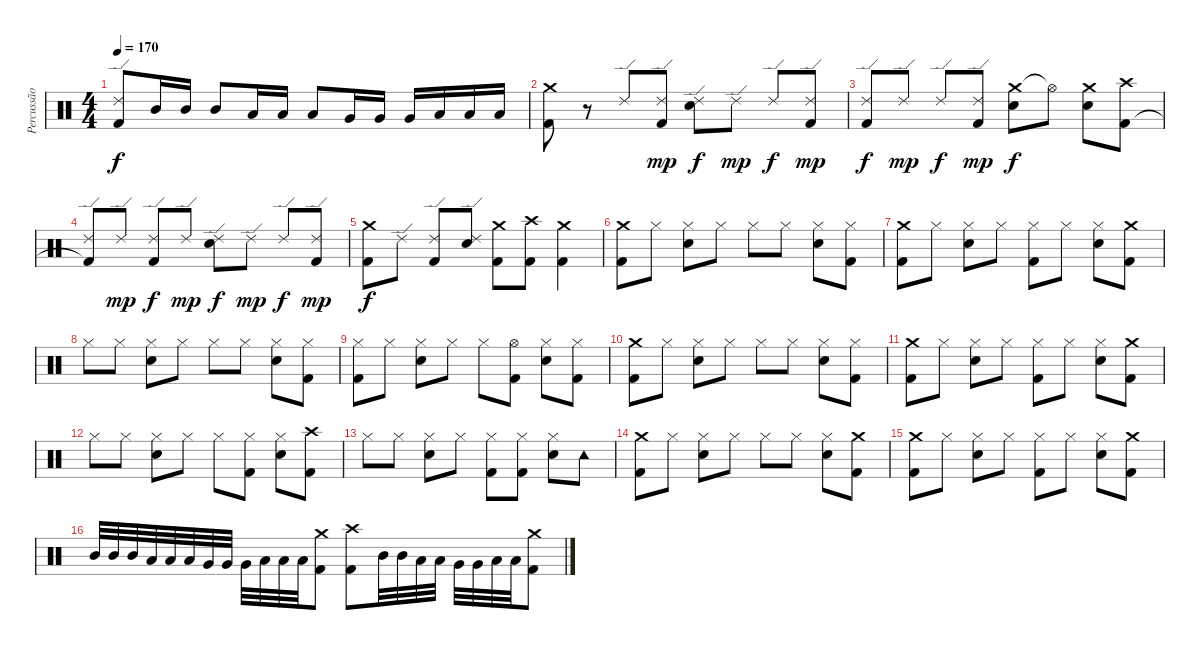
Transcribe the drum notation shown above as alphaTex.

\track ("Percussão" "Percussão") {instrument percussion}
\staff {score}
\articulation defaults
\ts (4 4)
\tempo 170
\clef neutral
\ks c
("Ride (edge) 2" "Kick (hit) 2").8{dy f} "Mid Tom (hit)".16 "Mid Tom (hit)".16 "Mid Tom (hit)".8 "Low Tom (hit)".16 "Low Tom (hit)".16 "Low Tom (hit)".8 "Very Low Tom (hit)".16 "Very Low Tom (hit)".16 "Very Low Tom (hit)".16 "Low Floor Tom (hit)".16 "Low Floor Tom (hit)".16 "Low Floor Tom (hit)".16 |
("Crash medium (hit)" "Kick (hit) 2").8 r.8 "Ride (edge) 2".8 ("Ride (edge) 2" "Kick (hit) 2").8{dy mp} ("Ride (edge) 2" "Electric Snare (hit)").8{dy f} "Ride (edge) 2".8{dy mp} "Ride (edge) 2".8{dy f} ("Ride (edge) 2" "Kick (hit) 2").8{dy mp} |
("Ride (edge) 2" "Kick (hit) 2").8{dy f} "Ride (edge) 2".8{dy mp} "Ride (edge) 2".8{dy f} ("Ride (edge) 2" "Kick (hit) 2").8{dy mp} ("Crash medium (hit)" "Electric Snare (hit)").8{dy f} "Hi-Hat (open)"{t}.8 ("Crash medium (hit)" "Electric Snare (hit)").8 ("Crash high (hit)" "Kick (hit) 2").8 |
("Ride (edge) 2" "Kick (hit) 2"{t}).8 "Ride (edge) 2".8{dy mp} ("Ride (edge) 2" "Kick (hit) 2").8{dy f} "Ride (edge) 2".8{dy mp} ("Ride (edge) 2" "Electric Snare (hit)").8{dy f} "Ride (edge) 2".8{dy mp} "Ride (edge) 2".8{dy f} ("Ride (edge) 2" "Kick (hit) 2").8{dy mp} |
("Crash medium (hit)" "Kick (hit) 2").8{dy f} "Ride (edge) 2".8 ("Ride (edge) 2" "Kick (hit) 2").8 ("Ride (edge) 2" "Electric Snare (hit)").8 ("Crash medium (hit)" "Kick (hit) 2").8 ("Crash high (hit)" "Kick (hit) 2").8 ("Crash medium (hit)" "Kick (hit) 2").4 |
("Crash medium (hit)" "Kick (hit) 2").8 "Hi-Hat (closed)".8 ("Hi-Hat (closed)" "Electric Snare (hit)").8 "Hi-Hat (closed)".8 "Hi-Hat (closed)".8 "Hi-Hat (closed)".8 ("Hi-Hat (closed)" "Electric Snare (hit)").8 ("Hi-Hat (closed)" "Kick (hit) 2").8 |
("Crash medium (hit)" "Kick (hit) 2").8 "Hi-Hat (closed)".8 ("Hi-Hat (closed)" "Electric Snare (hit)").8 "Hi-Hat (closed)".8 ("Hi-Hat (closed)" "Kick (hit) 2").8 "Hi-Hat (closed)".8 ("Hi-Hat (closed)" "Electric Snare (hit)").8 ("Crash medium (hit)" "Kick (hit) 2").8 |
"Hi-Hat (closed)".8 "Hi-Hat (closed)".8 ("Hi-Hat (closed)" "Electric Snare (hit)").8 "Hi-Hat (closed)".8 "Hi-Hat (closed)".8 "Hi-Hat (closed)".8 ("Hi-Hat (closed)" "Electric Snare (hit)").8 ("Hi-Hat (closed)" "Kick (hit) 2").8 |
("Hi-Hat (closed)" "Kick (hit) 2").8 "Hi-Hat (closed)".8 ("Hi-Hat (closed)" "Electric Snare (hit)").8 "Hi-Hat (closed)".8 "Hi-Hat (closed)".8 ("Hi-Hat (open)" "Kick (hit) 2").8 ("Hi-Hat (closed)" "Electric Snare (hit)").8 ("Hi-Hat (closed)" "Kick (hit) 2").8 |
("Crash medium (hit)" "Kick (hit) 2").8 "Hi-Hat (closed)".8 ("Hi-Hat (closed)" "Electric Snare (hit)").8 "Hi-Hat (closed)".8 "Hi-Hat (closed)".8 "Hi-Hat (closed)".8 ("Hi-Hat (closed)" "Electric Snare (hit)").8 ("Hi-Hat (closed)" "Kick (hit) 2").8 |
("Crash medium (hit)" "Kick (hit) 2").8 "Hi-Hat (closed)".8 ("Hi-Hat (closed)" "Electric Snare (hit)").8 "Hi-Hat (closed)".8 ("Hi-Hat (closed)" "Kick (hit) 2").8 "Hi-Hat (closed)".8 ("Hi-Hat (closed)" "Electric Snare (hit)").8 ("Crash medium (hit)" "Kick (hit) 2").8 |
"Hi-Hat (closed)".8 "Hi-Hat (closed)".8 ("Hi-Hat (closed)" "Electric Snare (hit)").8 "Hi-Hat (closed)".8 "Hi-Hat (closed)".8 ("Hi-Hat (closed)" "Kick (hit) 2").8 ("Hi-Hat (closed)" "Electric Snare (hit)").8 ("Crash high (hit)" "Kick (hit) 2").8 |
"Hi-Hat (closed)".8 "Hi-Hat (closed)".8 ("Hi-Hat (closed)" "Electric Snare (hit)").8 "Hi-Hat (closed)".8 ("Hi-Hat (closed)" "Kick (hit) 2").8 ("Hi-Hat (closed)" "Kick (hit) 2").8 ("Hi-Hat (closed)" "Electric Snare (hit)").8 "Tambourine (hit)".8 |
("Crash medium (hit)" "Kick (hit) 2").8 "Hi-Hat (closed)".8 ("Hi-Hat (closed)" "Electric Snare (hit)").8 "Hi-Hat (closed)".8 "Hi-Hat (closed)".8 "Hi-Hat (closed)".8 ("Hi-Hat (closed)" "Electric Snare (hit)").8 ("Crash medium (hit)" "Kick (hit) 2").8 |
("Crash medium (hit)" "Kick (hit) 2").8 "Hi-Hat (closed)".8 ("Hi-Hat (closed)" "Electric Snare (hit)").8 "Hi-Hat (closed)".8 ("Hi-Hat (closed)" "Kick (hit) 2").8 "Hi-Hat (closed)".8 ("Hi-Hat (closed)" "Electric Snare (hit)").8 ("Crash medium (hit)" "Kick (hit) 2").8 |
"Mid Tom (hit)".32 "Mid Tom (hit)".32 "Mid Tom (hit)".32 "Low Tom (hit)".32 "Low Tom (hit)".32 "Low Tom (hit)".32 "Very Low Tom (hit)".32 "Very Low Tom (hit)".32 "Very Low Tom (hit)".32 "Low Floor Tom (hit)".32 "Low Floor Tom (hit)".32 "Low Floor Tom (hit)".32 ("Crash medium (hit)" "Kick (hit) 2").8 ("Crash high (hit)" "Kick (hit) 2").8 "Mid Tom (hit)".32 "Mid Tom (hit)".32 "Low Tom (hit)".32 "Low Tom (hit)".32 "Very Low Tom (hit)".32 "Very Low Tom (hit)".32 "Low Floor Tom (hit)".32 "Low Floor Tom (hit)".32 ("Crash medium (hit)" "Kick (hit) 2").8
